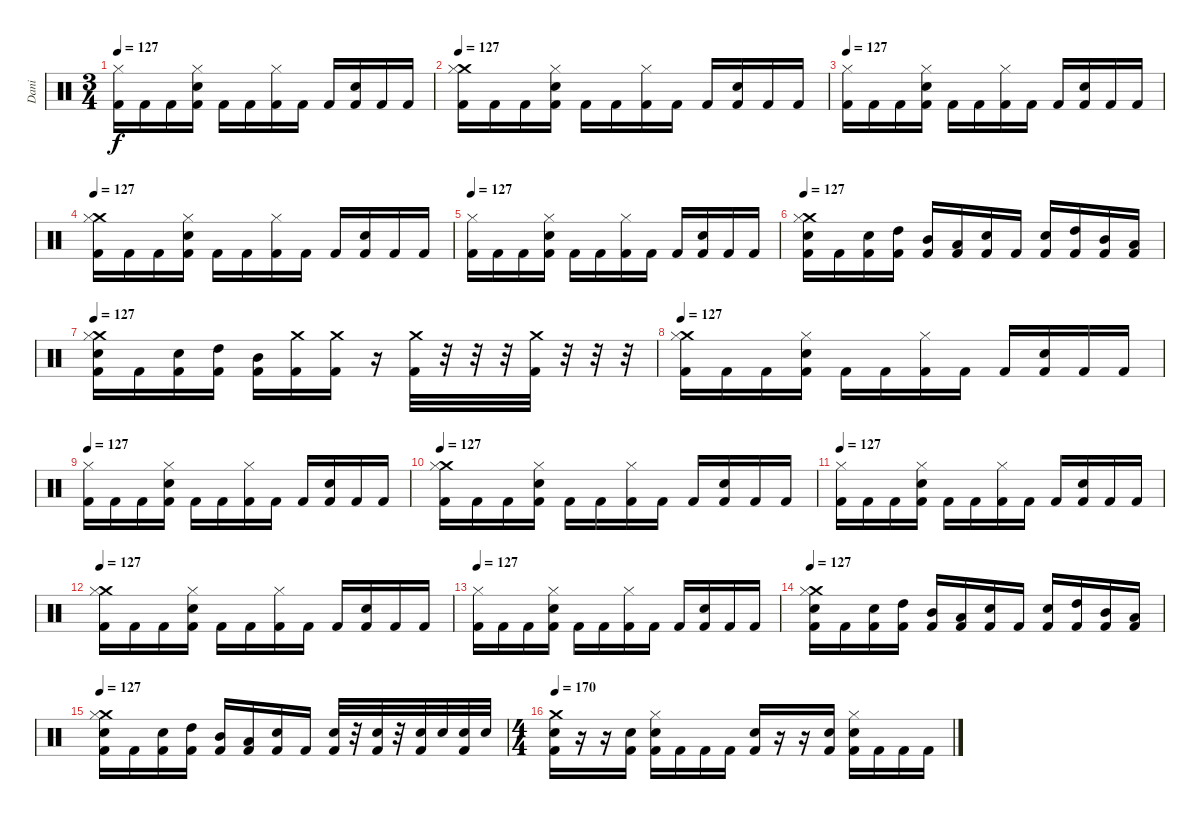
\track ("Dani" "Dani") {instrument percussion}
\staff {score}
\articulation defaults
\ts (3 4)
\tempo 127
\clef neutral
\ks c
("Hi-Hat (closed)" "Kick (hit) 2").16{dy f} "Kick (hit) 2".16 "Kick (hit) 2".16 ("Hi-Hat (closed)" "Electric Snare (hit)" "Kick (hit) 2").16 "Kick (hit) 2".16 "Kick (hit) 2".16 ("Hi-Hat (closed)" "Kick (hit) 2").16 "Kick (hit) 2".16 "Kick (hit) 2".16 ("Electric Snare (hit)" "Kick (hit) 2").16 "Kick (hit) 2".16 "Kick (hit) 2".16 |
\tempo 127
("Crash medium (hit)" "Hi-Hat (closed)" "Kick (hit) 2").16 "Kick (hit) 2".16 "Kick (hit) 2".16 ("Hi-Hat (closed)" "Electric Snare (hit)" "Kick (hit) 2").16 "Kick (hit) 2".16 "Kick (hit) 2".16 ("Hi-Hat (closed)" "Kick (hit) 2").16 "Kick (hit) 2".16 "Kick (hit) 2".16 ("Electric Snare (hit)" "Kick (hit) 2").16 "Kick (hit) 2".16 "Kick (hit) 2".16 |
\tempo 127
("Hi-Hat (closed)" "Kick (hit) 2").16 "Kick (hit) 2".16 "Kick (hit) 2".16 ("Hi-Hat (closed)" "Electric Snare (hit)" "Kick (hit) 2").16 "Kick (hit) 2".16 "Kick (hit) 2".16 ("Hi-Hat (closed)" "Kick (hit) 2").16 "Kick (hit) 2".16 "Kick (hit) 2".16 ("Electric Snare (hit)" "Kick (hit) 2").16 "Kick (hit) 2".16 "Kick (hit) 2".16 |
\tempo 127
("Crash medium (hit)" "Hi-Hat (closed)" "Kick (hit) 2").16 "Kick (hit) 2".16 "Kick (hit) 2".16 ("Hi-Hat (closed)" "Electric Snare (hit)" "Kick (hit) 2").16 "Kick (hit) 2".16 "Kick (hit) 2".16 ("Hi-Hat (closed)" "Kick (hit) 2").16 "Kick (hit) 2".16 "Kick (hit) 2".16 ("Electric Snare (hit)" "Kick (hit) 2").16 "Kick (hit) 2".16 "Kick (hit) 2".16 |
\tempo 127
("Hi-Hat (closed)" "Kick (hit) 2").16 "Kick (hit) 2".16 "Kick (hit) 2".16 ("Hi-Hat (closed)" "Electric Snare (hit)" "Kick (hit) 2").16 "Kick (hit) 2".16 "Kick (hit) 2".16 ("Hi-Hat (closed)" "Kick (hit) 2").16 "Kick (hit) 2".16 "Kick (hit) 2".16 ("Electric Snare (hit)" "Kick (hit) 2").16 "Kick (hit) 2".16 "Kick (hit) 2".16 |
\tempo 127
("Crash medium (hit)" "Hi-Hat (closed)" "Electric Snare (hit)" "Kick (hit) 2").16 "Kick (hit) 2".16 ("Electric Snare (hit)" "Kick (hit) 2").16 ("High Tom (hit)" "Kick (hit) 2").16 ("Mid Tom (hit)" "Kick (hit) 2").16 ("Low Tom (hit)" "Kick (hit) 2").16 ("Electric Snare (hit)" "Kick (hit) 2").16 "Kick (hit) 2".16 ("Electric Snare (hit)" "Kick (hit) 2").16 ("High Tom (hit)" "Kick (hit) 2").16 ("Mid Tom (hit)" "Kick (hit) 2").16 ("Low Tom (hit)" "Kick (hit) 2").16 |
\tempo 127
("Crash medium (hit)" "Hi-Hat (closed)" "Electric Snare (hit)" "Kick (hit) 2").16 "Kick (hit) 2".16 ("Electric Snare (hit)" "Kick (hit) 2").16 ("High Tom (hit)" "Kick (hit) 2").16 ("Mid Tom (hit)" "Kick (hit) 2").16 ("Crash medium (hit)" "Kick (hit) 2").16 ("Crash medium (hit)" "Kick (hit) 2").16 r.16 ("Crash medium (hit)" "Kick (hit) 2").32 r.32 r.32 r.32 ("Crash medium (hit)" "Kick (hit) 2").32 r.32 r.32 r.32 |
\tempo 127
("Crash medium (hit)" "Hi-Hat (closed)" "Kick (hit) 2").16 "Kick (hit) 2".16 "Kick (hit) 2".16 ("Hi-Hat (closed)" "Electric Snare (hit)" "Kick (hit) 2").16 "Kick (hit) 2".16 "Kick (hit) 2".16 ("Hi-Hat (closed)" "Kick (hit) 2").16 "Kick (hit) 2".16 "Kick (hit) 2".16 ("Electric Snare (hit)" "Kick (hit) 2").16 "Kick (hit) 2".16 "Kick (hit) 2".16 |
\tempo 127
("Hi-Hat (closed)" "Kick (hit) 2").16 "Kick (hit) 2".16 "Kick (hit) 2".16 ("Hi-Hat (closed)" "Electric Snare (hit)" "Kick (hit) 2").16 "Kick (hit) 2".16 "Kick (hit) 2".16 ("Hi-Hat (closed)" "Kick (hit) 2").16 "Kick (hit) 2".16 "Kick (hit) 2".16 ("Electric Snare (hit)" "Kick (hit) 2").16 "Kick (hit) 2".16 "Kick (hit) 2".16 |
\tempo 127
("Crash medium (hit)" "Hi-Hat (closed)" "Kick (hit) 2").16 "Kick (hit) 2".16 "Kick (hit) 2".16 ("Hi-Hat (closed)" "Electric Snare (hit)" "Kick (hit) 2").16 "Kick (hit) 2".16 "Kick (hit) 2".16 ("Hi-Hat (closed)" "Kick (hit) 2").16 "Kick (hit) 2".16 "Kick (hit) 2".16 ("Electric Snare (hit)" "Kick (hit) 2").16 "Kick (hit) 2".16 "Kick (hit) 2".16 |
\tempo 127
("Hi-Hat (closed)" "Kick (hit) 2").16 "Kick (hit) 2".16 "Kick (hit) 2".16 ("Hi-Hat (closed)" "Electric Snare (hit)" "Kick (hit) 2").16 "Kick (hit) 2".16 "Kick (hit) 2".16 ("Hi-Hat (closed)" "Kick (hit) 2").16 "Kick (hit) 2".16 "Kick (hit) 2".16 ("Electric Snare (hit)" "Kick (hit) 2").16 "Kick (hit) 2".16 "Kick (hit) 2".16 |
\tempo 127
("Crash medium (hit)" "Hi-Hat (closed)" "Kick (hit) 2").16 "Kick (hit) 2".16 "Kick (hit) 2".16 ("Hi-Hat (closed)" "Electric Snare (hit)" "Kick (hit) 2").16 "Kick (hit) 2".16 "Kick (hit) 2".16 ("Hi-Hat (closed)" "Kick (hit) 2").16 "Kick (hit) 2".16 "Kick (hit) 2".16 ("Electric Snare (hit)" "Kick (hit) 2").16 "Kick (hit) 2".16 "Kick (hit) 2".16 |
\tempo 127
("Hi-Hat (closed)" "Kick (hit) 2").16 "Kick (hit) 2".16 "Kick (hit) 2".16 ("Hi-Hat (closed)" "Electric Snare (hit)" "Kick (hit) 2").16 "Kick (hit) 2".16 "Kick (hit) 2".16 ("Hi-Hat (closed)" "Kick (hit) 2").16 "Kick (hit) 2".16 "Kick (hit) 2".16 ("Electric Snare (hit)" "Kick (hit) 2").16 "Kick (hit) 2".16 "Kick (hit) 2".16 |
\tempo 127
("Crash medium (hit)" "Hi-Hat (closed)" "Electric Snare (hit)" "Kick (hit) 2").16 "Kick (hit) 2".16 ("Electric Snare (hit)" "Kick (hit) 2").16 ("High Tom (hit)" "Kick (hit) 2").16 ("Mid Tom (hit)" "Kick (hit) 2").16 ("Low Tom (hit)" "Kick (hit) 2").16 ("Electric Snare (hit)" "Kick (hit) 2").16 "Kick (hit) 2".16 ("Electric Snare (hit)" "Kick (hit) 2").16 ("High Tom (hit)" "Kick (hit) 2").16 ("Mid Tom (hit)" "Kick (hit) 2").16 ("Low Tom (hit)" "Kick (hit) 2").16 |
\tempo 127
("Crash medium (hit)" "Hi-Hat (closed)" "Electric Snare (hit)" "Kick (hit) 2").16 "Kick (hit) 2".16 ("Electric Snare (hit)" "Kick (hit) 2").16 ("High Tom (hit)" "Kick (hit) 2").16 ("Mid Tom (hit)" "Kick (hit) 2").16 ("Low Tom (hit)" "Kick (hit) 2").16 ("Electric Snare (hit)" "Kick (hit) 2").16 "Kick (hit) 2".16 ("Electric Snare (hit)" "Kick (hit) 2").32 r.32 ("Electric Snare (hit)" "Kick (hit) 2").32 r.32 ("Electric Snare (hit)" "Kick (hit) 2").32 "Electric Snare (hit)".32 ("Electric Snare (hit)" "Kick (hit) 2").32 "Electric Snare (hit)".32 |
\ts (4 4)
\tempo 170
("Crash medium (hit)" "Electric Snare (hit)" "Kick (hit) 2").16 r.16 r.16 ("Electric Snare (hit)" "Kick (hit) 2").16 ("Hi-Hat (closed)" "Electric Snare (hit)" "Kick (hit) 2").16 "Kick (hit) 2".16 "Kick (hit) 2".16 "Kick (hit) 2".16 ("Electric Snare (hit)" "Kick (hit) 2").16 r.16 r.16 ("Electric Snare (hit)" "Kick (hit) 2").16 ("Hi-Hat (closed)" "Electric Snare (hit)" "Kick (hit) 2").16 "Kick (hit) 2".16 "Kick (hit) 2".16 "Kick (hit) 2".16
